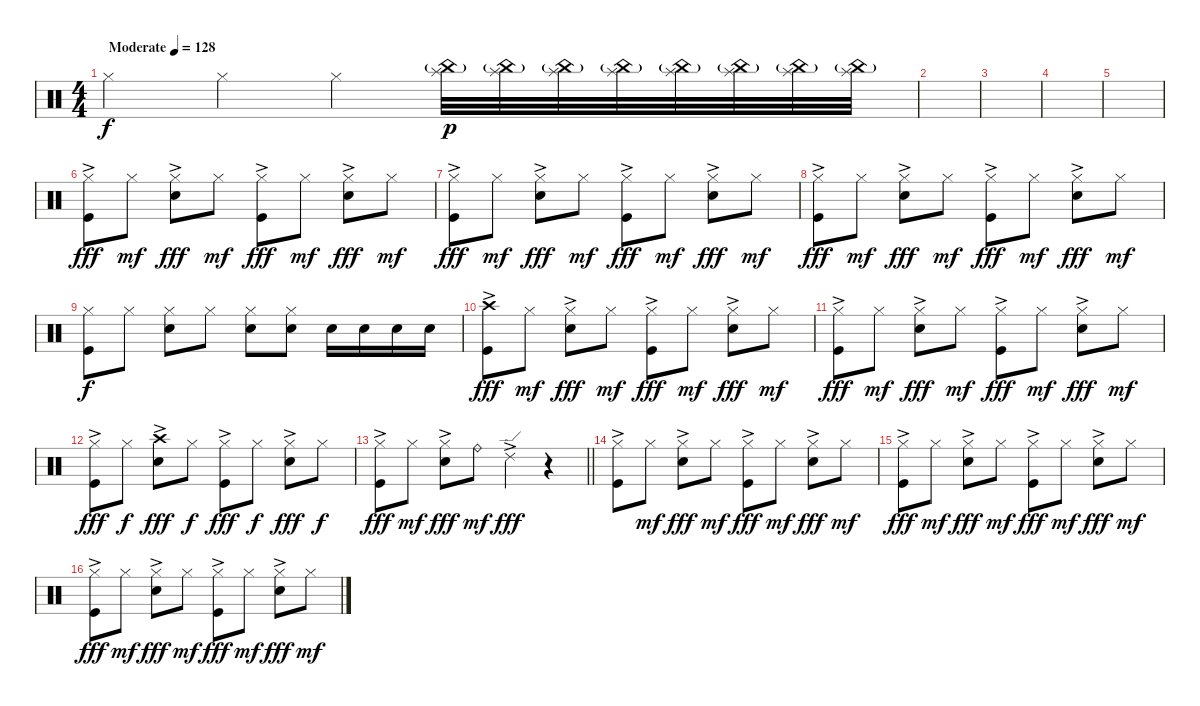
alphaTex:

\track "" {instrument percussion}
\staff {score}
\articulation defaults
\ts (4 4)
\tempo (128 "Moderate")
\clef neutral
\ks c "Hi-Hat (closed)".4{dy f} "Hi-Hat (closed)".4 "Hi-Hat (closed)".4
("China (hit)"{g} "Splash (hit)").32{dy p} ("China (hit)"{g} "Splash (hit)").32 ("China (hit)"{g} "Splash (hit)").32 ("China (hit)"{g} "Splash (hit)").32 ("China (hit)"{g} "Splash (hit)").32 ("China (hit)"{g} "Splash (hit)").32 ("China (hit)"{g} "Splash (hit)").32 ("China (hit)"{g} "Splash (hit)").32 |
|
|
|
|
("Hi-Hat (closed)"{ac} "Kick (hit)").8{dy fff} "Hi-Hat (closed)".8{dy mf} ("Hi-Hat (closed)"{ac} "Electric Snare (hit)").8{dy fff} "Hi-Hat (closed)".8{dy mf} ("Hi-Hat (closed)"{ac} "Kick (hit)").8{dy fff} "Hi-Hat (closed)".8{dy mf} ("Hi-Hat (closed)"{ac} "Electric Snare (hit)").8{dy fff} "Hi-Hat (closed)".8{dy mf} |
("Hi-Hat (closed)"{ac} "Kick (hit)").8{txt "" dy fff} "Hi-Hat (closed)".8{dy mf} ("Hi-Hat (closed)"{ac} "Electric Snare (hit)").8{dy fff} "Hi-Hat (closed)".8{dy mf} ("Hi-Hat (closed)"{ac} "Kick (hit)").8{dy fff} "Hi-Hat (closed)".8{dy mf} ("Hi-Hat (closed)"{ac} "Electric Snare (hit)").8{dy fff} "Hi-Hat (closed)".8{dy mf} |
("Hi-Hat (closed)"{ac} "Kick (hit)").8{dy fff} "Hi-Hat (closed)".8{dy mf} ("Hi-Hat (closed)"{ac} "Electric Snare (hit)").8{dy fff} "Hi-Hat (closed)".8{dy mf} ("Hi-Hat (closed)"{ac} "Kick (hit)").8{dy fff} "Hi-Hat (closed)".8{dy mf} ("Hi-Hat (closed)"{ac} "Electric Snare (hit)").8{dy fff} "Hi-Hat (closed)".8{dy mf} |
("Hi-Hat (closed)" "Kick (hit)").8{dy f} "Hi-Hat (closed)".8 ("Hi-Hat (closed)" "Electric Snare (hit)").8 "Hi-Hat (closed)".8 ("Hi-Hat (closed)" "Electric Snare (hit)").8 ("Hi-Hat (closed)" "Electric Snare (hit)").8 "Electric Snare (hit)".16 "Electric Snare (hit)".16 "Electric Snare (hit)".16 "Electric Snare (hit)".16 |
("Crash high (hit)"{ac} "Kick (hit)").8{dy fff} "Hi-Hat (closed)".8{dy mf} ("Hi-Hat (closed)"{ac} "Electric Snare (hit)").8{dy fff} "Hi-Hat (closed)".8{dy mf} ("Hi-Hat (closed)"{ac} "Kick (hit)").8{dy fff} "Hi-Hat (closed)".8{dy mf} ("Hi-Hat (closed)"{ac} "Electric Snare (hit)").8{dy fff} "Hi-Hat (closed)".8{dy mf} |
("Hi-Hat (closed)"{ac} "Kick (hit)").8{dy fff} "Hi-Hat (closed)".8{dy mf} ("Hi-Hat (closed)"{ac} "Electric Snare (hit)").8{dy fff} "Hi-Hat (closed)".8{dy mf} ("Hi-Hat (closed)"{ac} "Kick (hit)").8{dy fff} "Hi-Hat (closed)".8{dy mf} ("Hi-Hat (closed)"{ac} "Electric Snare (hit)").8{dy fff} "Hi-Hat (closed)".8{dy mf} |
("Hi-Hat (closed)"{ac} "Kick (hit)").8{dy fff} "Hi-Hat (closed)".8{dy f} ("Crash high (hit)"{ac} "Electric Snare (hit)").8{dy fff} "Hi-Hat (closed)".8{dy f} ("Hi-Hat (closed)"{ac} "Kick (hit)").8{dy fff} "Hi-Hat (closed)".8{dy f} ("Hi-Hat (closed)"{ac} "Electric Snare (hit)").8{dy fff} "Hi-Hat (closed)".8{dy f} |
\barLineRight lightlight
("Hi-Hat (closed)"{ac} "Kick (hit)").8{dy fff} "Hi-Hat (closed)".8{dy mf} ("Hi-Hat (closed)"{ac} "Electric Snare (hit)").8{dy fff} "Ride (bell)".8{dy mf} "Ride (edge) 2"{ac}.4{dy fff} r.4 |
("Hi-Hat (closed)"{ac} "Kick (hit)").8 "Hi-Hat (closed)".8{dy mf} ("Hi-Hat (closed)"{ac} "Electric Snare (hit)").8{dy fff} "Hi-Hat (closed)".8{dy mf} ("Hi-Hat (closed)"{ac} "Kick (hit)").8{dy fff} "Hi-Hat (closed)".8{dy mf} ("Hi-Hat (closed)"{ac} "Electric Snare (hit)").8{dy fff} "Hi-Hat (closed)".8{dy mf} |
("Hi-Hat (closed)"{ac} "Kick (hit)").8{dy fff} "Hi-Hat (closed)".8{dy mf} ("Hi-Hat (closed)"{ac} "Electric Snare (hit)").8{dy fff} "Hi-Hat (closed)".8{dy mf} ("Hi-Hat (closed)"{ac} "Kick (hit)").8{dy fff} "Hi-Hat (closed)".8{dy mf} ("Hi-Hat (closed)"{ac} "Electric Snare (hit)").8{dy fff} "Hi-Hat (closed)".8{dy mf} |
("Hi-Hat (closed)"{ac} "Kick (hit)").8{dy fff} "Hi-Hat (closed)".8{dy mf} ("Hi-Hat (closed)"{ac} "Electric Snare (hit)").8{dy fff} "Hi-Hat (closed)".8{dy mf} ("Hi-Hat (closed)"{ac} "Kick (hit)").8{dy fff} "Hi-Hat (closed)".8{dy mf} ("Hi-Hat (closed)"{ac} "Electric Snare (hit)").8{dy fff} "Hi-Hat (closed)".8{dy mf}
